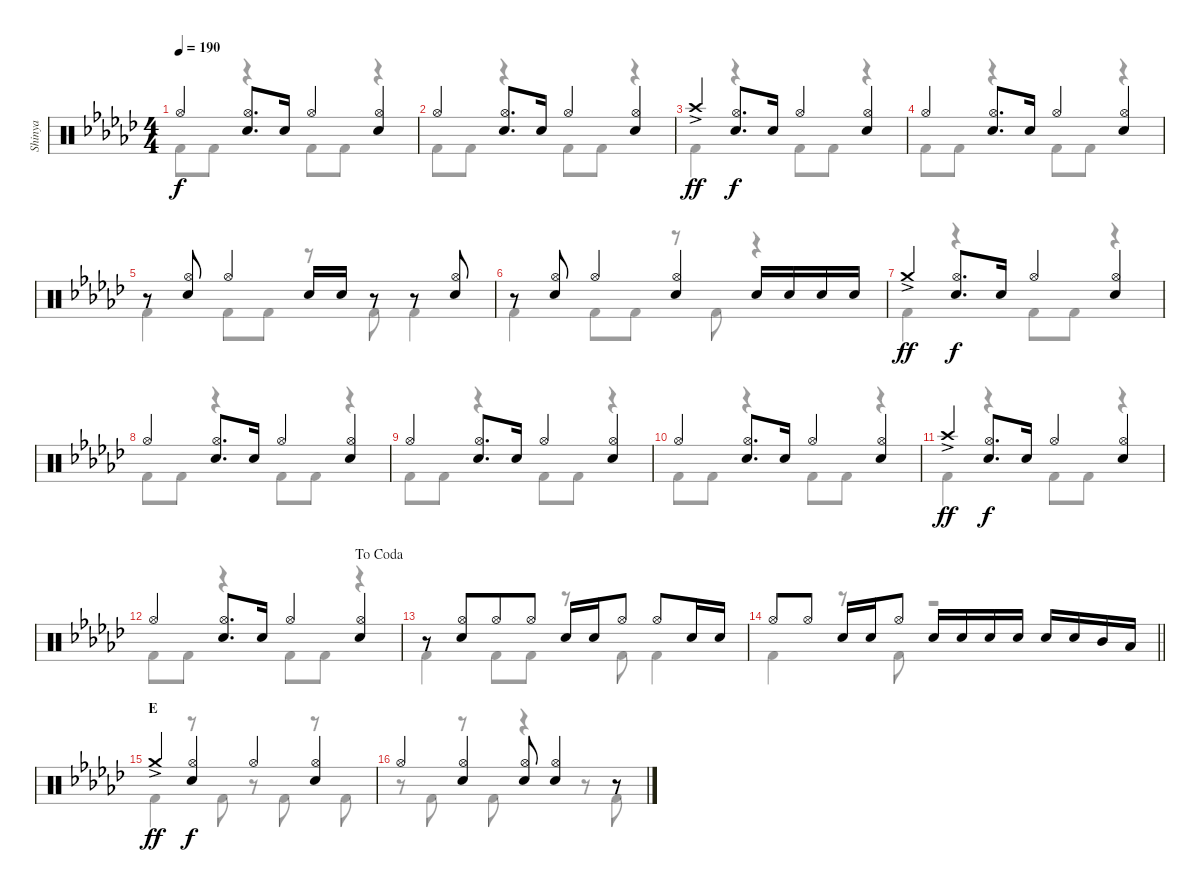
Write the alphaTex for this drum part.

\track ("Shinya" "Shinya") {instrument percussion}
\staff {score}
\articulation defaults
\voice
\ts (4 4)
\tempo 190
\clef neutral
\ks ebminor "Hi-Hat (open)".4{dy f}
("Hi-Hat (open)" "Snare (hit) 2").8{d} "Snare (hit) 2".16 "Hi-Hat (open)".4 ("Hi-Hat (open)" "Snare (hit) 2").4 |
"Hi-Hat (open)".4 ("Hi-Hat (open)" "Snare (hit) 2").8{d} "Snare (hit) 2".16 "Hi-Hat (open)".4 ("Hi-Hat (open)" "Snare (hit) 2").4 |
"Crash high (hit)"{ac}.4{dy ff} ("Hi-Hat (open)" "Snare (hit) 2").8{d dy f} "Snare (hit) 2".16 "Hi-Hat (open)".4 ("Hi-Hat (open)" "Snare (hit) 2").4 |
"Hi-Hat (open)".4 ("Hi-Hat (open)" "Snare (hit) 2").8{d} "Snare (hit) 2".16 "Hi-Hat (open)".4 ("Hi-Hat (open)" "Snare (hit) 2").4 |
r.8 ("Hi-Hat (open)" "Snare (hit) 2").8 "Hi-Hat (open)".4 "Snare (hit) 2".16 "Snare (hit) 2".16 r.8 r.8 ("Hi-Hat (open)" "Snare (hit) 2").8 |
r.8 ("Hi-Hat (open)" "Snare (hit) 2").8 "Hi-Hat (open)".4 ("Hi-Hat (open)" "Snare (hit) 2").4 "Snare (hit) 2".16 "Snare (hit) 2".16 "Snare (hit) 2".16 "Snare (hit) 2".16 |
"Crash medium (hit)"{ac}.4{dy ff} ("Hi-Hat (open)" "Snare (hit) 2").8{d dy f} "Snare (hit) 2".16 "Hi-Hat (open)".4 ("Hi-Hat (open)" "Snare (hit) 2").4 |
"Hi-Hat (open)".4 ("Hi-Hat (open)" "Snare (hit) 2").8{d} "Snare (hit) 2".16 "Hi-Hat (open)".4 ("Hi-Hat (open)" "Snare (hit) 2").4 |
"Hi-Hat (open)".4 ("Hi-Hat (open)" "Snare (hit) 2").8{d} "Snare (hit) 2".16 "Hi-Hat (open)".4 ("Hi-Hat (open)" "Snare (hit) 2").4 |
"Hi-Hat (open)".4 ("Hi-Hat (open)" "Snare (hit) 2").8{d} "Snare (hit) 2".16 "Hi-Hat (open)".4 ("Hi-Hat (open)" "Snare (hit) 2").4 |
"Crash high (hit)"{ac}.4{dy ff} ("Hi-Hat (open)" "Snare (hit) 2").8{d dy f} "Snare (hit) 2".16 "Hi-Hat (open)".4 ("Hi-Hat (open)" "Snare (hit) 2").4 |
\jump dacoda "Hi-Hat (open)".4
("Hi-Hat (open)" "Snare (hit) 2").8{d} "Snare (hit) 2".16 "Hi-Hat (open)".4 ("Hi-Hat (open)" "Snare (hit) 2").4 |
r.8 ("Hi-Hat (open)" "Snare (hit) 2").8{beam merge} "Hi-Hat (open)".8 "Hi-Hat (open)".8 "Snare (hit) 2".16 "Snare (hit) 2".16 "Hi-Hat (open)".8 "Hi-Hat (open)".8 "Snare (hit) 2".16 "Snare (hit) 2".16 |
\barLineRight lightlight "Hi-Hat (open)".8 "Hi-Hat (open)".8 "Snare (hit) 2".16 "Snare (hit) 2".16 "Hi-Hat (open)".8 "Snare (hit) 2".16 "Snare (hit) 2".16 "Snare (hit) 2".16 "Snare (hit) 2".16 "Snare (hit) 2".16 "Snare (hit) 2".16 "Mid Tom (hit)".16 "Low Tom (hit)".16
|
\section ("" "E")
"Crash medium (hit)"{ac}.4{dy ff} ("Hi-Hat (open)" "Snare (hit) 2").4{dy f} "Hi-Hat (open)".4 ("Hi-Hat (open)" "Snare (hit) 2").4 |
"Hi-Hat (open)".4 ("Hi-Hat (open)" "Snare (hit) 2").4 ("Hi-Hat (open)" "Snare (hit) 2").8 ("Hi-Hat (open)" "Snare (hit) 2").4 r.8
\voice
\clef neutral
\ottava regular
\simile none
\ks ebminor "Kick (hit) 2".8{dy f} "Kick (hit) 2".8
r.4 "Kick (hit) 2".8 "Kick (hit) 2".8 r.4 |
"Kick (hit) 2".8 "Kick (hit) 2".8 r.4 "Kick (hit) 2".8 "Kick (hit) 2".8 r.4 |
"Kick (hit) 2".4 r.4 "Kick (hit) 2".8 "Kick (hit) 2".8 r.4 |
"Kick (hit) 2".8 "Kick (hit) 2".8 r.4 "Kick (hit) 2".8 "Kick (hit) 2".8 r.4 |
"Kick (hit) 2".4 "Kick (hit) 2".8 "Kick (hit) 2".8 r.8 "Kick (hit) 2".8 "Kick (hit) 2".4 |
"Kick (hit) 2".4 "Kick (hit) 2".8 "Kick (hit) 2".8 r.8 "Kick (hit) 2".8 r.4 |
"Kick (hit) 2".4 r.4 "Kick (hit) 2".8 "Kick (hit) 2".8 r.4 |
"Kick (hit) 2".8 "Kick (hit) 2".8 r.4 "Kick (hit) 2".8 "Kick (hit) 2".8 r.4 |
"Kick (hit) 2".8 "Kick (hit) 2".8 r.4 "Kick (hit) 2".8 "Kick (hit) 2".8 r.4 |
"Kick (hit) 2".8 "Kick (hit) 2".8 r.4 "Kick (hit) 2".8 "Kick (hit) 2".8 r.4 |
"Kick (hit) 2".4 r.4 "Kick (hit) 2".8 "Kick (hit) 2".8 r.4 |
"Kick (hit) 2".8 "Kick (hit) 2".8 r.4 "Kick (hit) 2".8 "Kick (hit) 2".8 r.4 |
"Kick (hit) 2".4 "Kick (hit) 2".8 "Kick (hit) 2".8 r.8 "Kick (hit) 2".8 "Kick (hit) 2".4 |
\barLineRight lightlight "Kick (hit) 2".4
r.8 "Kick (hit) 2".8 r.2 |
"Kick (hit) 2".4 r.8 "Kick (hit) 2".8 r.8 "Kick (hit) 2".8 r.8 "Kick (hit) 2".8 |
r.8 "Kick (hit) 2".8 r.8 "Kick (hit) 2".8 r.4 r.8 "Kick (hit) 2".8
